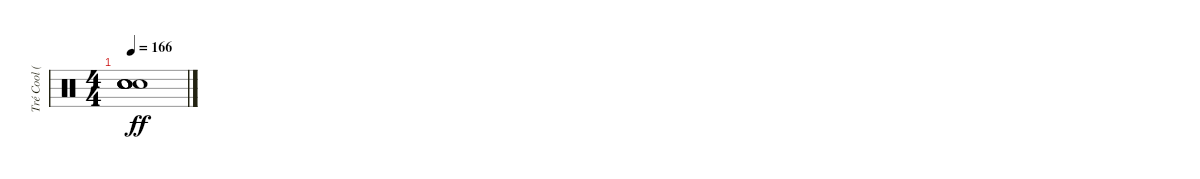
\track ("Tré Cool (Drums)" "Tré Cool (") {instrument percussion}
\staff {score}
\articulation defaults
\ts (4 4)
\tempo 166
\clef neutral
\ks c
("Snare (hit)"{t} "Snare (hit)"{t} "Snare (hit)"{t} "Snare (hit)"{t} "Snare (hit)"{t}).1{dy ff}
